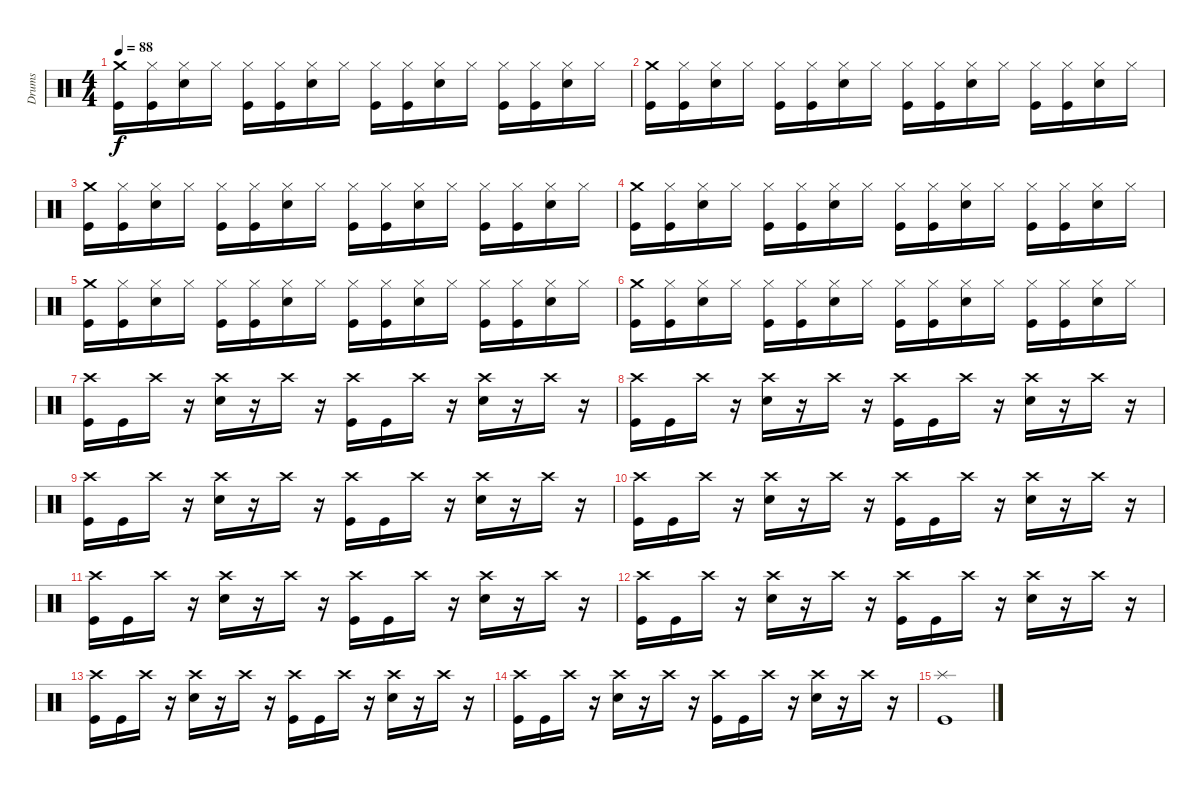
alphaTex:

\track ("Drums" "Drums") {instrument percussion}
\staff {score}
\articulation defaults
\ts (4 4)
\tempo 88
\clef neutral
\ks c
("Crash medium (hit)" "Kick (hit)").16{dy f} ("Hi-Hat (closed)" "Kick (hit)").16 ("Hi-Hat (closed)" "Electric Snare (hit)").16 "Hi-Hat (closed)".16 ("Hi-Hat (closed)" "Kick (hit)").16 ("Hi-Hat (closed)" "Kick (hit)").16 ("Hi-Hat (closed)" "Electric Snare (hit)").16 "Hi-Hat (closed)".16 ("Hi-Hat (closed)" "Kick (hit)").16 ("Hi-Hat (closed)" "Kick (hit)").16 ("Hi-Hat (closed)" "Electric Snare (hit)").16 "Hi-Hat (closed)".16 ("Hi-Hat (closed)" "Kick (hit)").16 ("Hi-Hat (closed)" "Kick (hit)").16 ("Hi-Hat (closed)" "Electric Snare (hit)").16 "Hi-Hat (closed)".16 |
("Crash medium (hit)" "Kick (hit)").16 ("Hi-Hat (closed)" "Kick (hit)").16 ("Hi-Hat (closed)" "Electric Snare (hit)").16 "Hi-Hat (closed)".16 ("Hi-Hat (closed)" "Kick (hit)").16 ("Hi-Hat (closed)" "Kick (hit)").16 ("Hi-Hat (closed)" "Electric Snare (hit)").16 "Hi-Hat (closed)".16 ("Hi-Hat (closed)" "Kick (hit)").16 ("Hi-Hat (closed)" "Kick (hit)").16 ("Hi-Hat (closed)" "Electric Snare (hit)").16 "Hi-Hat (closed)".16 ("Hi-Hat (closed)" "Kick (hit)").16 ("Hi-Hat (closed)" "Kick (hit)").16 ("Hi-Hat (closed)" "Electric Snare (hit)").16 "Hi-Hat (closed)".16 |
("Crash medium (hit)" "Kick (hit)").16 ("Hi-Hat (closed)" "Kick (hit)").16 ("Hi-Hat (closed)" "Electric Snare (hit)").16 "Hi-Hat (closed)".16 ("Hi-Hat (closed)" "Kick (hit)").16 ("Hi-Hat (closed)" "Kick (hit)").16 ("Hi-Hat (closed)" "Electric Snare (hit)").16 "Hi-Hat (closed)".16 ("Hi-Hat (closed)" "Kick (hit)").16 ("Hi-Hat (closed)" "Kick (hit)").16 ("Hi-Hat (closed)" "Electric Snare (hit)").16 "Hi-Hat (closed)".16 ("Hi-Hat (closed)" "Kick (hit)").16 ("Hi-Hat (closed)" "Kick (hit)").16 ("Hi-Hat (closed)" "Electric Snare (hit)").16 "Hi-Hat (closed)".16 |
("Crash medium (hit)" "Kick (hit)").16 ("Hi-Hat (closed)" "Kick (hit)").16 ("Hi-Hat (closed)" "Electric Snare (hit)").16 "Hi-Hat (closed)".16 ("Hi-Hat (closed)" "Kick (hit)").16 ("Hi-Hat (closed)" "Kick (hit)").16 ("Hi-Hat (closed)" "Electric Snare (hit)").16 "Hi-Hat (closed)".16 ("Hi-Hat (closed)" "Kick (hit)").16 ("Hi-Hat (closed)" "Kick (hit)").16 ("Hi-Hat (closed)" "Electric Snare (hit)").16 "Hi-Hat (closed)".16 ("Hi-Hat (closed)" "Kick (hit)").16 ("Hi-Hat (closed)" "Kick (hit)").16 ("Hi-Hat (closed)" "Electric Snare (hit)").16 "Hi-Hat (closed)".16 |
("Crash medium (hit)" "Kick (hit)").16 ("Hi-Hat (closed)" "Kick (hit)").16 ("Hi-Hat (closed)" "Electric Snare (hit)").16 "Hi-Hat (closed)".16 ("Hi-Hat (closed)" "Kick (hit)").16 ("Hi-Hat (closed)" "Kick (hit)").16 ("Hi-Hat (closed)" "Electric Snare (hit)").16 "Hi-Hat (closed)".16 ("Hi-Hat (closed)" "Kick (hit)").16 ("Hi-Hat (closed)" "Kick (hit)").16 ("Hi-Hat (closed)" "Electric Snare (hit)").16 "Hi-Hat (closed)".16 ("Hi-Hat (closed)" "Kick (hit)").16 ("Hi-Hat (closed)" "Kick (hit)").16 ("Hi-Hat (closed)" "Electric Snare (hit)").16 "Hi-Hat (closed)".16 |
("Crash medium (hit)" "Kick (hit)").16 ("Hi-Hat (closed)" "Kick (hit)").16 ("Hi-Hat (closed)" "Electric Snare (hit)").16 "Hi-Hat (closed)".16 ("Hi-Hat (closed)" "Kick (hit)").16 ("Hi-Hat (closed)" "Kick (hit)").16 ("Hi-Hat (closed)" "Electric Snare (hit)").16 "Hi-Hat (closed)".16 ("Hi-Hat (closed)" "Kick (hit)").16 ("Hi-Hat (closed)" "Kick (hit)").16 ("Hi-Hat (closed)" "Electric Snare (hit)").16 "Hi-Hat (closed)".16 ("Hi-Hat (closed)" "Kick (hit)").16 ("Hi-Hat (closed)" "Kick (hit)").16 ("Hi-Hat (closed)" "Electric Snare (hit)").16 "Hi-Hat (closed)".16 |
("Crash high (hit)" "Kick (hit)").16 "Kick (hit)".16 "Crash high (hit)".16 r.16 ("Crash high (hit)" "Electric Snare (hit)").16 r.16 "Crash high (hit)".16 r.16 ("Crash high (hit)" "Kick (hit)").16 "Kick (hit)".16 "Crash high (hit)".16 r.16 ("Crash high (hit)" "Electric Snare (hit)").16 r.16 "Crash high (hit)".16 r.16 |
("Crash high (hit)" "Kick (hit)").16 "Kick (hit)".16 "Crash high (hit)".16 r.16 ("Crash high (hit)" "Electric Snare (hit)").16 r.16 "Crash high (hit)".16 r.16 ("Crash high (hit)" "Kick (hit)").16 "Kick (hit)".16 "Crash high (hit)".16 r.16 ("Crash high (hit)" "Electric Snare (hit)").16 r.16 "Crash high (hit)".16 r.16 |
("Crash high (hit)" "Kick (hit)").16 "Kick (hit)".16 "Crash high (hit)".16 r.16 ("Crash high (hit)" "Electric Snare (hit)").16 r.16 "Crash high (hit)".16 r.16 ("Crash high (hit)" "Kick (hit)").16 "Kick (hit)".16 "Crash high (hit)".16 r.16 ("Crash high (hit)" "Electric Snare (hit)").16 r.16 "Crash high (hit)".16 r.16 |
("Crash high (hit)" "Kick (hit)").16 "Kick (hit)".16 "Crash high (hit)".16 r.16 ("Crash high (hit)" "Electric Snare (hit)").16 r.16 "Crash high (hit)".16 r.16 ("Crash high (hit)" "Kick (hit)").16 "Kick (hit)".16 "Crash high (hit)".16 r.16 ("Crash high (hit)" "Electric Snare (hit)").16 r.16 "Crash high (hit)".16 r.16 |
("Crash high (hit)" "Kick (hit)").16 "Kick (hit)".16 "Crash high (hit)".16 r.16 ("Crash high (hit)" "Electric Snare (hit)").16 r.16 "Crash high (hit)".16 r.16 ("Crash high (hit)" "Kick (hit)").16 "Kick (hit)".16 "Crash high (hit)".16 r.16 ("Crash high (hit)" "Electric Snare (hit)").16 r.16 "Crash high (hit)".16 r.16 |
("Crash high (hit)" "Kick (hit)").16 "Kick (hit)".16 "Crash high (hit)".16 r.16 ("Crash high (hit)" "Electric Snare (hit)").16 r.16 "Crash high (hit)".16 r.16 ("Crash high (hit)" "Kick (hit)").16 "Kick (hit)".16 "Crash high (hit)".16 r.16 ("Crash high (hit)" "Electric Snare (hit)").16 r.16 "Crash high (hit)".16 r.16 |
("Crash high (hit)" "Kick (hit)").16 "Kick (hit)".16 "Crash high (hit)".16 r.16 ("Crash high (hit)" "Electric Snare (hit)").16 r.16 "Crash high (hit)".16 r.16 ("Crash high (hit)" "Kick (hit)").16 "Kick (hit)".16 "Crash high (hit)".16 r.16 ("Crash high (hit)" "Electric Snare (hit)").16 r.16 "Crash high (hit)".16 r.16 |
("Crash high (hit)" "Kick (hit)").16 "Kick (hit)".16 "Crash high (hit)".16 r.16 ("Crash high (hit)" "Electric Snare (hit)").16 r.16 "Crash high (hit)".16 r.16 ("Crash high (hit)" "Kick (hit)").16 "Kick (hit)".16 "Crash high (hit)".16 r.16 ("Crash high (hit)" "Electric Snare (hit)").16 r.16 "Crash high (hit)".16 r.16 |
("Splash (hit)" "Kick (hit)").1
